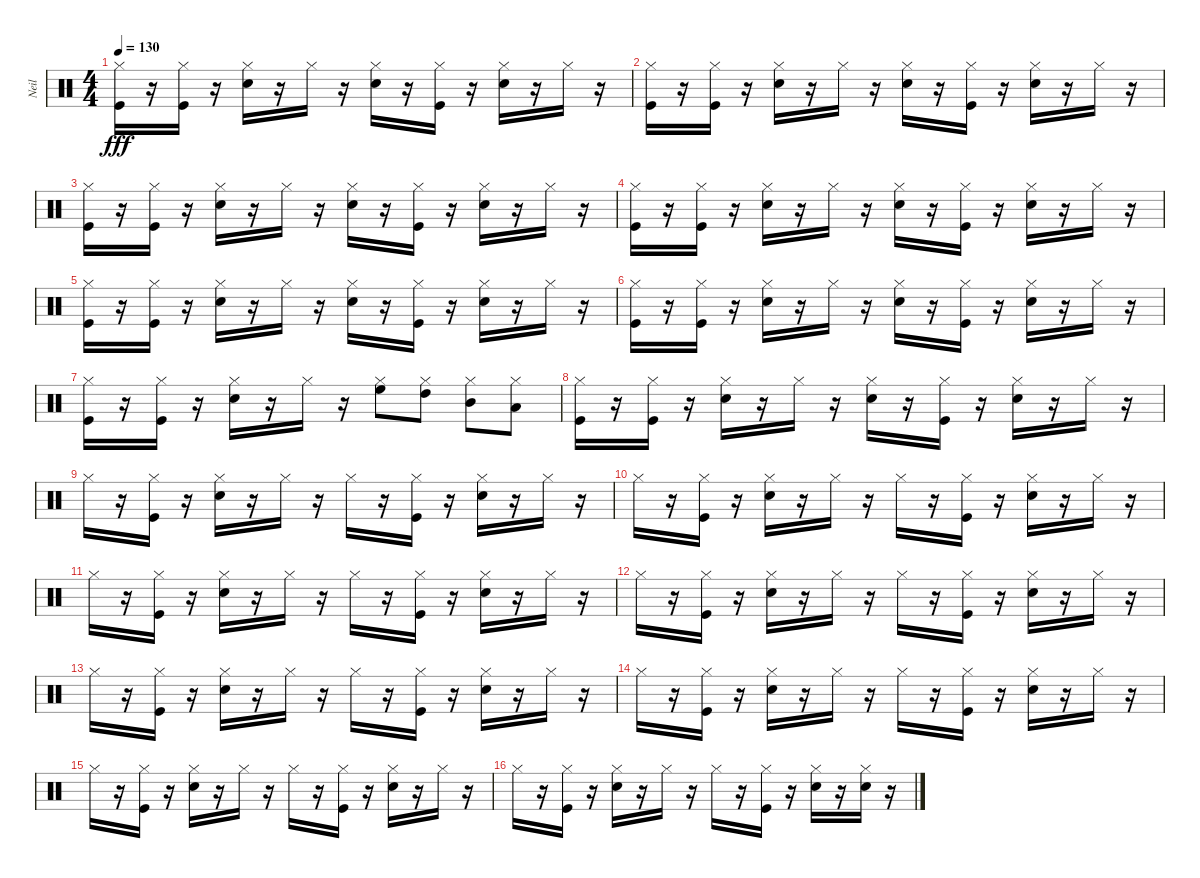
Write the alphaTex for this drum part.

\track ("Neil" "Neil") {instrument percussion}
\staff {score}
\articulation defaults
\ts (4 4)
\tempo 130
\clef neutral
\ks c
("Hi-Hat (closed)" "Kick (hit)").16{dy fff} r.16 ("Kick (hit)" "Hi-Hat (closed)").16 r.16 ("Hi-Hat (closed)" "Electric Snare (hit)").16 r.16 "Hi-Hat (closed)".16 r.16 ("Hi-Hat (closed)" "Electric Snare (hit)").16 r.16 ("Hi-Hat (closed)" "Kick (hit)").16 r.16 ("Hi-Hat (closed)" "Electric Snare (hit)").16 r.16 "Hi-Hat (closed)".16 r.16 |
("Hi-Hat (closed)" "Kick (hit)").16 r.16 ("Kick (hit)" "Hi-Hat (closed)").16 r.16 ("Hi-Hat (closed)" "Electric Snare (hit)").16 r.16 "Hi-Hat (closed)".16 r.16 ("Hi-Hat (closed)" "Electric Snare (hit)").16 r.16 ("Hi-Hat (closed)" "Kick (hit)").16 r.16 ("Hi-Hat (closed)" "Electric Snare (hit)").16 r.16 "Hi-Hat (closed)".16 r.16 |
("Hi-Hat (closed)" "Kick (hit)").16 r.16 ("Kick (hit)" "Hi-Hat (closed)").16 r.16 ("Hi-Hat (closed)" "Electric Snare (hit)").16 r.16 "Hi-Hat (closed)".16 r.16 ("Hi-Hat (closed)" "Electric Snare (hit)").16 r.16 ("Hi-Hat (closed)" "Kick (hit)").16 r.16 ("Hi-Hat (closed)" "Electric Snare (hit)").16 r.16 "Hi-Hat (closed)".16 r.16 |
("Hi-Hat (closed)" "Kick (hit)").16 r.16 ("Kick (hit)" "Hi-Hat (closed)").16 r.16 ("Hi-Hat (closed)" "Electric Snare (hit)").16 r.16 "Hi-Hat (closed)".16 r.16 ("Hi-Hat (closed)" "Electric Snare (hit)").16 r.16 ("Hi-Hat (closed)" "Kick (hit)").16 r.16 ("Hi-Hat (closed)" "Electric Snare (hit)").16 r.16 "Hi-Hat (closed)".16 r.16 |
("Hi-Hat (closed)" "Kick (hit)").16 r.16 ("Kick (hit)" "Hi-Hat (closed)").16 r.16 ("Hi-Hat (closed)" "Electric Snare (hit)").16 r.16 "Hi-Hat (closed)".16 r.16 ("Hi-Hat (closed)" "Electric Snare (hit)").16 r.16 ("Hi-Hat (closed)" "Kick (hit)").16 r.16 ("Hi-Hat (closed)" "Electric Snare (hit)").16 r.16 "Hi-Hat (closed)".16 r.16 |
("Hi-Hat (closed)" "Kick (hit)").16 r.16 ("Kick (hit)" "Hi-Hat (closed)").16 r.16 ("Hi-Hat (closed)" "Electric Snare (hit)").16 r.16 "Hi-Hat (closed)".16 r.16 ("Hi-Hat (closed)" "Electric Snare (hit)").16 r.16 ("Hi-Hat (closed)" "Kick (hit)").16 r.16 ("Hi-Hat (closed)" "Electric Snare (hit)").16 r.16 "Hi-Hat (closed)".16 r.16 |
("Hi-Hat (closed)" "Kick (hit)").16 r.16 ("Kick (hit)" "Hi-Hat (closed)").16 r.16 ("Hi-Hat (closed)" "Electric Snare (hit)").16 r.16 "Hi-Hat (closed)".16 r.16 ("Hi-Hat (closed)" "High Floor Tom (hit)").8 ("Hi-Hat (closed)" "High Tom (hit)").8 ("Hi-Hat (closed)" "Mid Tom (hit)").8 ("Low Tom (hit)" "Hi-Hat (closed)").8 |
("Hi-Hat (closed)" "Kick (hit)").16 r.16 ("Kick (hit)" "Hi-Hat (closed)").16 r.16 ("Hi-Hat (closed)" "Electric Snare (hit)").16 r.16 "Hi-Hat (closed)".16 r.16 ("Hi-Hat (closed)" "Electric Snare (hit)").16 r.16 ("Hi-Hat (closed)" "Kick (hit)").16 r.16 ("Hi-Hat (closed)" "Electric Snare (hit)").16 r.16 "Hi-Hat (closed)".16 r.16 |
"Hi-Hat (closed)".16 r.16 ("Kick (hit)" "Hi-Hat (closed)").16 r.16 ("Hi-Hat (closed)" "Electric Snare (hit)").16 r.16 "Hi-Hat (closed)".16 r.16 "Hi-Hat (closed)".16 r.16 ("Hi-Hat (closed)" "Kick (hit)").16 r.16 ("Hi-Hat (closed)" "Electric Snare (hit)").16 r.16 "Hi-Hat (closed)".16 r.16 |
"Hi-Hat (closed)".16 r.16 ("Kick (hit)" "Hi-Hat (closed)").16 r.16 ("Hi-Hat (closed)" "Electric Snare (hit)").16 r.16 "Hi-Hat (closed)".16 r.16 "Hi-Hat (closed)".16 r.16 ("Hi-Hat (closed)" "Kick (hit)").16 r.16 ("Hi-Hat (closed)" "Electric Snare (hit)").16 r.16 "Hi-Hat (closed)".16 r.16 |
"Hi-Hat (closed)".16 r.16 ("Kick (hit)" "Hi-Hat (closed)").16 r.16 ("Hi-Hat (closed)" "Electric Snare (hit)").16 r.16 "Hi-Hat (closed)".16 r.16 "Hi-Hat (closed)".16 r.16 ("Hi-Hat (closed)" "Kick (hit)").16 r.16 ("Hi-Hat (closed)" "Electric Snare (hit)").16 r.16 "Hi-Hat (closed)".16 r.16 |
"Hi-Hat (closed)".16 r.16 ("Kick (hit)" "Hi-Hat (closed)").16 r.16 ("Hi-Hat (closed)" "Electric Snare (hit)").16 r.16 "Hi-Hat (closed)".16 r.16 "Hi-Hat (closed)".16 r.16 ("Hi-Hat (closed)" "Kick (hit)").16 r.16 ("Hi-Hat (closed)" "Electric Snare (hit)").16 r.16 "Hi-Hat (closed)".16 r.16 |
"Hi-Hat (closed)".16 r.16 ("Kick (hit)" "Hi-Hat (closed)").16 r.16 ("Hi-Hat (closed)" "Electric Snare (hit)").16 r.16 "Hi-Hat (closed)".16 r.16 "Hi-Hat (closed)".16 r.16 ("Hi-Hat (closed)" "Kick (hit)").16 r.16 ("Hi-Hat (closed)" "Electric Snare (hit)").16 r.16 "Hi-Hat (closed)".16 r.16 |
"Hi-Hat (closed)".16 r.16 ("Kick (hit)" "Hi-Hat (closed)").16 r.16 ("Hi-Hat (closed)" "Electric Snare (hit)").16 r.16 "Hi-Hat (closed)".16 r.16 "Hi-Hat (closed)".16 r.16 ("Hi-Hat (closed)" "Kick (hit)").16 r.16 ("Hi-Hat (closed)" "Electric Snare (hit)").16 r.16 "Hi-Hat (closed)".16 r.16 |
"Hi-Hat (closed)".16 r.16 ("Kick (hit)" "Hi-Hat (closed)").16 r.16 ("Hi-Hat (closed)" "Electric Snare (hit)").16 r.16 "Hi-Hat (closed)".16 r.16 "Hi-Hat (closed)".16 r.16 ("Hi-Hat (closed)" "Kick (hit)").16 r.16 ("Hi-Hat (closed)" "Electric Snare (hit)").16 r.16 "Hi-Hat (closed)".16 r.16 |
"Hi-Hat (closed)".16 r.16 ("Kick (hit)" "Hi-Hat (closed)").16 r.16 ("Hi-Hat (closed)" "Electric Snare (hit)").16 r.16 "Hi-Hat (closed)".16 r.16 "Hi-Hat (closed)".16 r.16 ("Hi-Hat (closed)" "Kick (hit)").16 r.16 ("Hi-Hat (closed)" "Electric Snare (hit)").16 r.16 ("Hi-Hat (closed)" "Electric Snare (hit)").16 r.16
